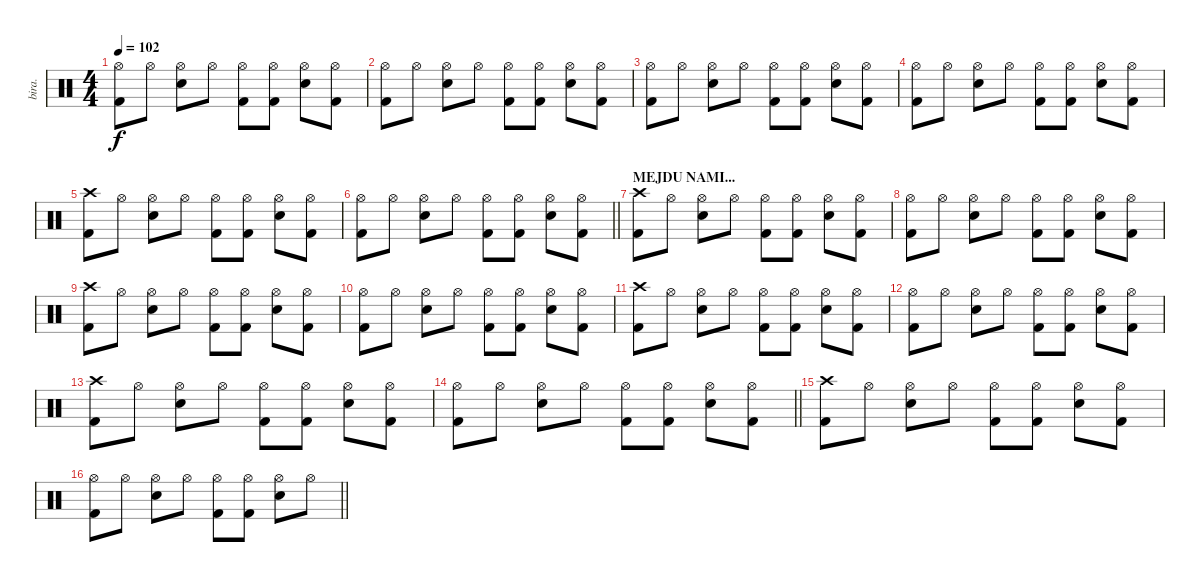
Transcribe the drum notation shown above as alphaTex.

\track ("bira." "bira.") {instrument percussion}
\staff {score}
\articulation defaults
\ts (4 4)
\tempo 102
\clef neutral
\ks c
("Hi-Hat (open)" "Kick (hit) 2").8{dy f} "Hi-Hat (open)".8 ("Hi-Hat (open)" "Electric Snare (hit)").8 "Hi-Hat (open)".8 ("Hi-Hat (open)" "Kick (hit) 2").8 ("Hi-Hat (open)" "Kick (hit) 2").8 ("Hi-Hat (open)" "Electric Snare (hit)").8 ("Hi-Hat (open)" "Kick (hit) 2").8 |
("Hi-Hat (open)" "Kick (hit) 2").8 "Hi-Hat (open)".8 ("Hi-Hat (open)" "Electric Snare (hit)").8 "Hi-Hat (open)".8 ("Hi-Hat (open)" "Kick (hit) 2").8 ("Hi-Hat (open)" "Kick (hit) 2").8 ("Hi-Hat (open)" "Electric Snare (hit)").8 ("Hi-Hat (open)" "Kick (hit) 2").8 |
("Hi-Hat (open)" "Kick (hit) 2").8 "Hi-Hat (open)".8 ("Hi-Hat (open)" "Electric Snare (hit)").8 "Hi-Hat (open)".8 ("Hi-Hat (open)" "Kick (hit) 2").8 ("Hi-Hat (open)" "Kick (hit) 2").8 ("Hi-Hat (open)" "Electric Snare (hit)").8 ("Hi-Hat (open)" "Kick (hit) 2").8 |
("Hi-Hat (open)" "Kick (hit) 2").8 "Hi-Hat (open)".8 ("Hi-Hat (open)" "Electric Snare (hit)").8 "Hi-Hat (open)".8 ("Hi-Hat (open)" "Kick (hit) 2").8 ("Hi-Hat (open)" "Kick (hit) 2").8 ("Hi-Hat (open)" "Electric Snare (hit)").8 ("Hi-Hat (open)" "Kick (hit) 2").8 |
("Crash high (hit)" "Kick (hit) 2").8 "Hi-Hat (open)".8 ("Hi-Hat (open)" "Electric Snare (hit)").8 "Hi-Hat (open)".8 ("Hi-Hat (open)" "Kick (hit) 2").8 ("Hi-Hat (open)" "Kick (hit) 2").8 ("Hi-Hat (open)" "Electric Snare (hit)").8 ("Hi-Hat (open)" "Kick (hit) 2").8 |
\barLineRight lightlight
("Hi-Hat (open)" "Kick (hit) 2").8 "Hi-Hat (open)".8 ("Hi-Hat (open)" "Electric Snare (hit)").8 "Hi-Hat (open)".8 ("Hi-Hat (open)" "Kick (hit) 2").8 ("Hi-Hat (open)" "Kick (hit) 2").8 ("Hi-Hat (open)" "Electric Snare (hit)").8 ("Hi-Hat (open)" "Kick (hit) 2").8 |
\section ("" "MEJDU NAMI...")
("Crash high (hit)" "Kick (hit) 2").8 "Hi-Hat (open)".8 ("Hi-Hat (open)" "Electric Snare (hit)").8 "Hi-Hat (open)".8 ("Hi-Hat (open)" "Kick (hit) 2").8 ("Hi-Hat (open)" "Kick (hit) 2").8 ("Hi-Hat (open)" "Electric Snare (hit)").8 ("Hi-Hat (open)" "Kick (hit) 2").8 |
("Hi-Hat (open)" "Kick (hit) 2").8 "Hi-Hat (open)".8 ("Hi-Hat (open)" "Electric Snare (hit)").8 "Hi-Hat (open)".8 ("Hi-Hat (open)" "Kick (hit) 2").8 ("Hi-Hat (open)" "Kick (hit) 2").8 ("Hi-Hat (open)" "Electric Snare (hit)").8 ("Hi-Hat (open)" "Kick (hit) 2").8 |
("Crash high (hit)" "Kick (hit) 2").8 "Hi-Hat (open)".8 ("Hi-Hat (open)" "Electric Snare (hit)").8 "Hi-Hat (open)".8 ("Hi-Hat (open)" "Kick (hit) 2").8 ("Hi-Hat (open)" "Kick (hit) 2").8 ("Hi-Hat (open)" "Electric Snare (hit)").8 ("Hi-Hat (open)" "Kick (hit) 2").8 |
("Hi-Hat (open)" "Kick (hit) 2").8 "Hi-Hat (open)".8 ("Hi-Hat (open)" "Electric Snare (hit)").8 "Hi-Hat (open)".8 ("Hi-Hat (open)" "Kick (hit) 2").8 ("Hi-Hat (open)" "Kick (hit) 2").8 ("Hi-Hat (open)" "Electric Snare (hit)").8 ("Hi-Hat (open)" "Kick (hit) 2").8 |
("Crash high (hit)" "Kick (hit) 2").8 "Hi-Hat (open)".8 ("Hi-Hat (open)" "Electric Snare (hit)").8 "Hi-Hat (open)".8 ("Hi-Hat (open)" "Kick (hit) 2").8 ("Hi-Hat (open)" "Kick (hit) 2").8 ("Hi-Hat (open)" "Electric Snare (hit)").8 ("Hi-Hat (open)" "Kick (hit) 2").8 |
("Hi-Hat (open)" "Kick (hit) 2").8 "Hi-Hat (open)".8 ("Hi-Hat (open)" "Electric Snare (hit)").8 "Hi-Hat (open)".8 ("Hi-Hat (open)" "Kick (hit) 2").8 ("Hi-Hat (open)" "Kick (hit) 2").8 ("Hi-Hat (open)" "Electric Snare (hit)").8 ("Hi-Hat (open)" "Kick (hit) 2").8 |
("Crash high (hit)" "Kick (hit) 2").8 "Hi-Hat (open)".8 ("Hi-Hat (open)" "Electric Snare (hit)").8 "Hi-Hat (open)".8 ("Hi-Hat (open)" "Kick (hit) 2").8 ("Hi-Hat (open)" "Kick (hit) 2").8 ("Hi-Hat (open)" "Electric Snare (hit)").8 ("Hi-Hat (open)" "Kick (hit) 2").8 |
\barLineRight lightlight
("Hi-Hat (open)" "Kick (hit) 2").8 "Hi-Hat (open)".8 ("Hi-Hat (open)" "Electric Snare (hit)").8 "Hi-Hat (open)".8 ("Hi-Hat (open)" "Kick (hit) 2").8 ("Hi-Hat (open)" "Kick (hit) 2").8 ("Hi-Hat (open)" "Electric Snare (hit)").8 ("Hi-Hat (open)" "Kick (hit) 2").8 |
("Crash high (hit)" "Kick (hit) 2").8 "Hi-Hat (open)".8 ("Hi-Hat (open)" "Electric Snare (hit)").8 "Hi-Hat (open)".8 ("Hi-Hat (open)" "Kick (hit) 2").8 ("Hi-Hat (open)" "Kick (hit) 2").8 ("Hi-Hat (open)" "Electric Snare (hit)").8 ("Hi-Hat (open)" "Kick (hit) 2").8 |
\barLineRight lightlight
("Hi-Hat (open)" "Kick (hit) 2").8 "Hi-Hat (open)".8 ("Hi-Hat (open)" "Electric Snare (hit)").8 "Hi-Hat (open)".8 ("Hi-Hat (open)" "Kick (hit) 2").8 ("Hi-Hat (open)" "Kick (hit) 2").8 ("Hi-Hat (open)" "Electric Snare (hit)").8 "Hi-Hat (open)".8
